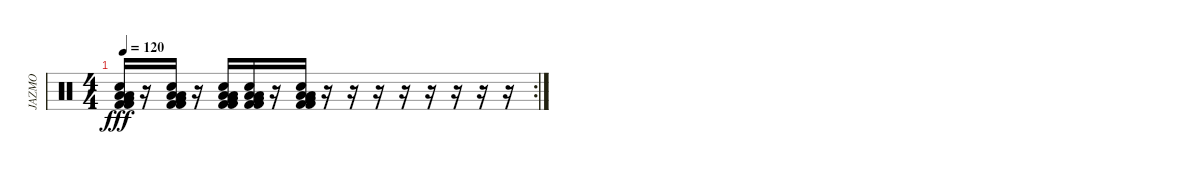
\track ("JAZMO" "JAZMO") {instrument percussion}
\staff {score}
\articulation defaults
\rc 2
\ts (4 4)
\tempo 120
\clef neutral
\ks c
("Kick (hit) 2" "Low Floor Tom (hit)" "Very Low Tom (hit)" "Low Floor Tom (hit)" "Electric Snare (hit)" "Kick (hit) 2").16{dy fff} r.16 ("Kick (hit) 2" "Low Floor Tom (hit)" "Very Low Tom (hit)" "Low Floor Tom (hit)" "Electric Snare (hit)" "Kick (hit) 2").16 r.16 ("Kick (hit) 2" "Low Floor Tom (hit)" "Very Low Tom (hit)" "Low Floor Tom (hit)" "Electric Snare (hit)" "Kick (hit) 2").16 ("Kick (hit) 2" "Low Floor Tom (hit)" "Very Low Tom (hit)" "Low Floor Tom (hit)" "Electric Snare (hit)" "Kick (hit) 2").16 r.16 ("Kick (hit) 2" "Low Floor Tom (hit)" "Very Low Tom (hit)" "Low Floor Tom (hit)" "Electric Snare (hit)" "Kick (hit) 2").16 r.16 r.16 r.16 r.16 r.16 r.16 r.16 r.16
